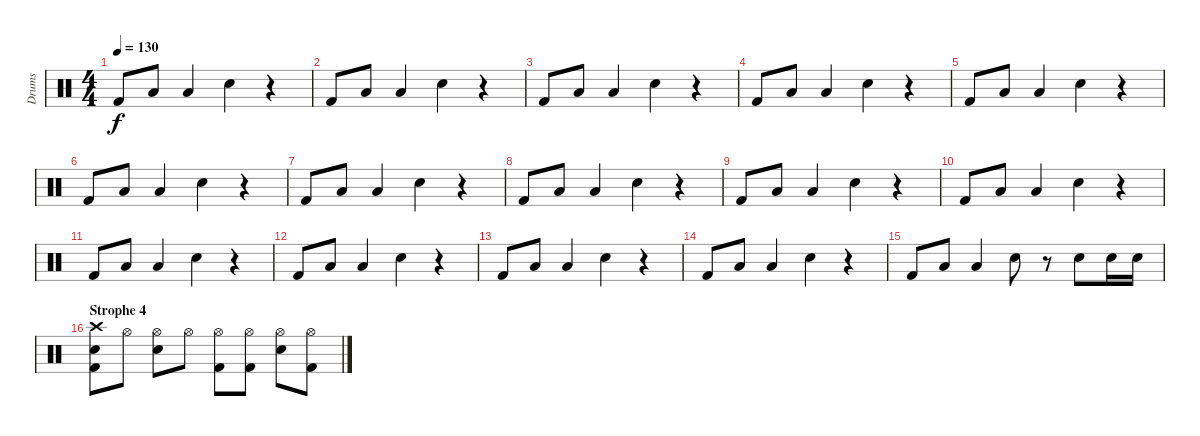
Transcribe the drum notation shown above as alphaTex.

\track ("Drums" "Drums") {instrument percussion}
\staff {score}
\articulation defaults
\ts (4 4)
\tempo 130
\clef neutral
\ks c "Kick (hit) 2".8{dy f} "Low Floor Tom (hit)".8 "Low Floor Tom (hit)".4 "Electric Snare (hit)".4
r.4 |
"Kick (hit) 2".8 "Low Floor Tom (hit)".8 "Low Floor Tom (hit)".4 "Electric Snare (hit)".4 r.4 |
"Kick (hit) 2".8 "Low Floor Tom (hit)".8 "Low Floor Tom (hit)".4 "Electric Snare (hit)".4 r.4 |
"Kick (hit) 2".8 "Low Floor Tom (hit)".8 "Low Floor Tom (hit)".4 "Electric Snare (hit)".4 r.4 |
"Kick (hit) 2".8 "Low Floor Tom (hit)".8 "Low Floor Tom (hit)".4 "Electric Snare (hit)".4 r.4 |
"Kick (hit) 2".8 "Low Floor Tom (hit)".8 "Low Floor Tom (hit)".4 "Electric Snare (hit)".4 r.4 |
"Kick (hit) 2".8 "Low Floor Tom (hit)".8 "Low Floor Tom (hit)".4 "Electric Snare (hit)".4 r.4 |
"Kick (hit) 2".8 "Low Floor Tom (hit)".8 "Low Floor Tom (hit)".4 "Electric Snare (hit)".4 r.4 |
"Kick (hit) 2".8 "Low Floor Tom (hit)".8 "Low Floor Tom (hit)".4 "Electric Snare (hit)".4 r.4 |
"Kick (hit) 2".8 "Low Floor Tom (hit)".8 "Low Floor Tom (hit)".4 "Electric Snare (hit)".4 r.4 |
"Kick (hit) 2".8 "Low Floor Tom (hit)".8 "Low Floor Tom (hit)".4 "Electric Snare (hit)".4 r.4 |
"Kick (hit) 2".8 "Low Floor Tom (hit)".8 "Low Floor Tom (hit)".4 "Electric Snare (hit)".4 r.4 |
"Kick (hit) 2".8 "Low Floor Tom (hit)".8 "Low Floor Tom (hit)".4 "Electric Snare (hit)".4 r.4 |
"Kick (hit) 2".8 "Low Floor Tom (hit)".8 "Low Floor Tom (hit)".4 "Electric Snare (hit)".4 r.4 |
"Kick (hit) 2".8 "Low Floor Tom (hit)".8 "Low Floor Tom (hit)".4 "Electric Snare (hit)".8 r.8 "Electric Snare (hit)".8 "Electric Snare (hit)".16 "Electric Snare (hit)".16 |
\section ("" "Strophe 4")
("Crash high (hit)" "Snare (hit)" "Kick (hit) 2").8 "Hi-Hat (open)".8 ("Hi-Hat (open)" "Electric Snare (hit)").8 "Hi-Hat (open)".8 ("Hi-Hat (open)" "Kick (hit) 2").8 ("Hi-Hat (open)" "Kick (hit) 2").8 ("Hi-Hat (open)" "Electric Snare (hit)").8 ("Hi-Hat (open)" "Kick (hit) 2").8
